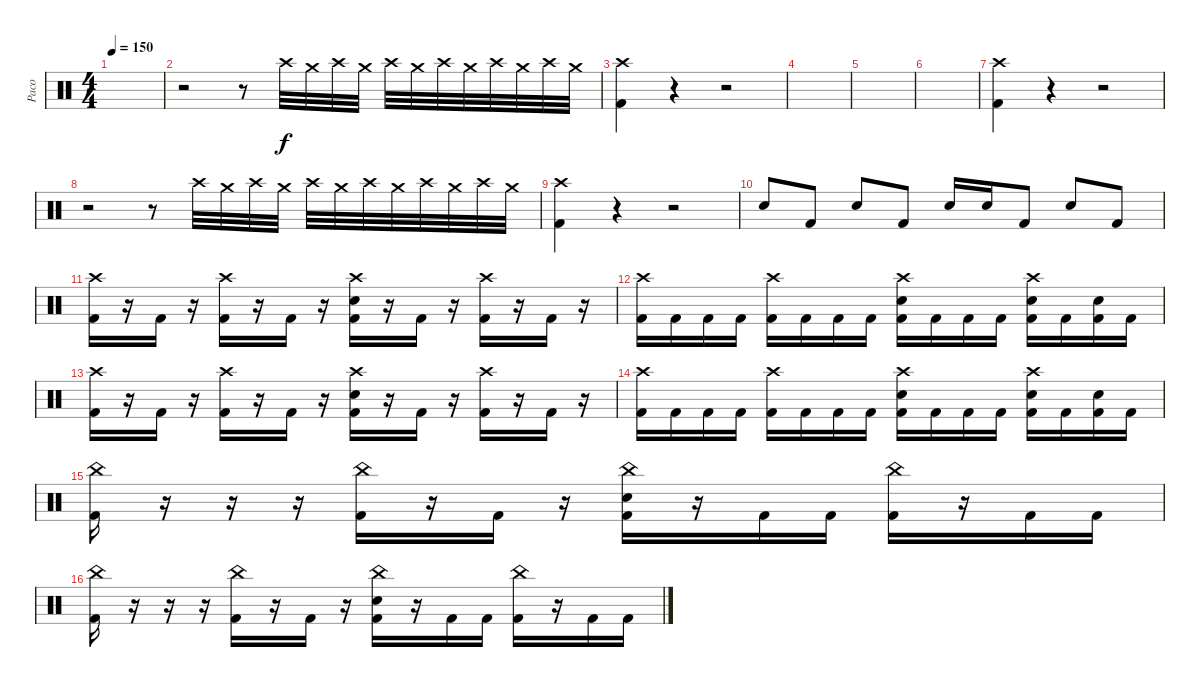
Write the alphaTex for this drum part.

\track ("Paco" "Paco") {instrument percussion}
\staff {score}
\articulation defaults
\ts (4 4)
\tempo 150
\clef neutral
\ks c
|
r.2 r.8 "Crash high (hit)".32{volume 4} "Crash medium (hit)".32{volume 13} "Crash high (hit)".32 "Crash medium (hit)".32 "Crash high (hit)".32 "Crash medium (hit)".32 "Crash high (hit)".32 "Crash medium (hit)".32 "Crash high (hit)".32 "Crash medium (hit)".32 "Crash high (hit)".32 "Crash medium (hit)".32 |
("Crash high (hit)" "Kick (hit) 2").4 r.4 r.2 |
|
|
|
("Crash high (hit)" "Kick (hit) 2").4 r.4 r.2 |
r.2 r.8 "Crash high (hit)".32{volume 4} "Crash medium (hit)".32{volume 13} "Crash high (hit)".32 "Crash medium (hit)".32 "Crash high (hit)".32 "Crash medium (hit)".32 "Crash high (hit)".32 "Crash medium (hit)".32 "Crash high (hit)".32 "Crash medium (hit)".32 "Crash high (hit)".32 "Crash medium (hit)".32 |
("Crash high (hit)" "Kick (hit) 2").4 r.4 r.2 |
"Electric Snare (hit)".8 "Kick (hit) 2".8 "Electric Snare (hit)".8 "Kick (hit) 2".8 "Electric Snare (hit)".16 "Electric Snare (hit)".16 "Kick (hit) 2".8 "Electric Snare (hit)".8 "Kick (hit) 2".8 |
("Crash high (hit)" "Kick (hit) 2").16 r.16 "Kick (hit) 2".16 r.16 ("Crash high (hit)" "Kick (hit) 2").16 r.16 "Kick (hit) 2".16 r.16 ("Crash high (hit)" "Electric Snare (hit)" "Kick (hit) 2").16 r.16 "Kick (hit) 2".16 r.16 ("Crash high (hit)" "Kick (hit) 2").16 r.16 "Kick (hit) 2".16 r.16 |
("Crash high (hit)" "Kick (hit) 2").16 "Kick (hit) 2".16 "Kick (hit) 2".16 "Kick (hit) 2".16 ("Crash high (hit)" "Kick (hit) 2").16 "Kick (hit) 2".16 "Kick (hit) 2".16 "Kick (hit) 2".16 ("Crash high (hit)" "Electric Snare (hit)" "Kick (hit) 2").16 "Kick (hit) 2".16 "Kick (hit) 2".16 "Kick (hit) 2".16 ("Crash high (hit)" "Electric Snare (hit)" "Kick (hit) 2").16 "Kick (hit) 2".16 ("Electric Snare (hit)" "Kick (hit) 2").16 "Kick (hit) 2".16 |
("Crash high (hit)" "Kick (hit) 2").16 r.16 "Kick (hit) 2".16 r.16 ("Crash high (hit)" "Kick (hit) 2").16 r.16 "Kick (hit) 2".16 r.16 ("Crash high (hit)" "Electric Snare (hit)" "Kick (hit) 2").16 r.16 "Kick (hit) 2".16 r.16 ("Crash high (hit)" "Kick (hit) 2").16 r.16 "Kick (hit) 2".16 r.16 |
("Crash high (hit)" "Kick (hit) 2").16 "Kick (hit) 2".16 "Kick (hit) 2".16 "Kick (hit) 2".16 ("Crash high (hit)" "Kick (hit) 2").16 "Kick (hit) 2".16 "Kick (hit) 2".16 "Kick (hit) 2".16 ("Crash high (hit)" "Electric Snare (hit)" "Kick (hit) 2").16 "Kick (hit) 2".16 "Kick (hit) 2".16 "Kick (hit) 2".16 ("Crash high (hit)" "Electric Snare (hit)" "Kick (hit) 2").16 "Kick (hit) 2".16 ("Electric Snare (hit)" "Kick (hit) 2").16 "Kick (hit) 2".16 |
("China (hit)" "Kick (hit) 2").16 r.16 r.16 r.16 ("China (hit)" "Kick (hit) 2").16 r.16 "Kick (hit) 2".16 r.16 ("China (hit)" "Electric Snare (hit)" "Kick (hit) 2").16 r.16 "Kick (hit) 2".16 "Kick (hit) 2".16 ("China (hit)" "Kick (hit) 2").16 r.16 "Kick (hit) 2".16 "Kick (hit) 2".16 |
("China (hit)" "Kick (hit) 2").16 r.16 r.16 r.16 ("China (hit)" "Kick (hit) 2").16 r.16 "Kick (hit) 2".16 r.16 ("China (hit)" "Electric Snare (hit)" "Kick (hit) 2").16 r.16 "Kick (hit) 2".16 "Kick (hit) 2".16 ("China (hit)" "Kick (hit) 2").16 r.16 "Kick (hit) 2".16 "Kick (hit) 2".16
